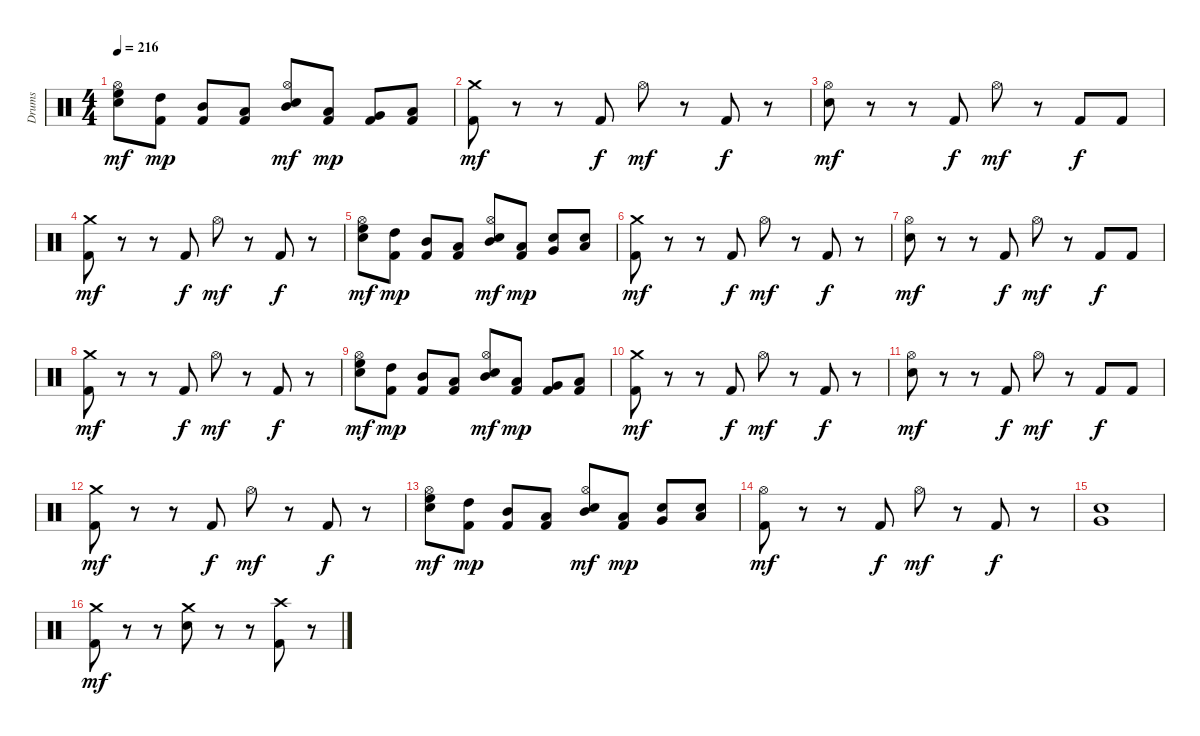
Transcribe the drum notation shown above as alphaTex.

\track ("Drums" "Drums") {instrument percussion}
\staff {score}
\articulation defaults
\ts (4 4)
\tempo 216
\clef neutral
\ks c
("Snare (hit) 2" "High Floor Tom (hit)" "Hi-Hat (open)").8{dy mf} ("Kick (hit) 2" "High Tom (hit)").8{dy mp} ("Kick (hit) 2" "Mid Tom (hit)").8 ("Kick (hit) 2" "Low Tom (hit)").8 ("Snare (hit) 2" "Mid Tom (hit)" "Hi-Hat (open)").8{dy mf} ("Kick (hit) 2" "Low Tom (hit)").8{dy mp} ("Kick (hit) 2" "Very Low Tom (hit)").8 ("Kick (hit) 2" "Low Floor Tom (hit)").8 |
("Kick (hit) 2" "Crash medium (hit)").8{dy mf} r.8 r.8 "Kick (hit) 2".8{dy f} "Hi-Hat (open)".8{dy mf} r.8 "Kick (hit) 2".8{dy f} r.8 |
("Snare (hit) 2" "Hi-Hat (open)").8{dy mf} r.8 r.8 "Kick (hit) 2".8{dy f} "Hi-Hat (open)".8{dy mf} r.8 "Kick (hit) 2".8{dy f} "Kick (hit) 2".8 |
("Kick (hit) 2" "Crash medium (hit)").8{dy mf} r.8 r.8 "Kick (hit) 2".8{dy f} "Hi-Hat (open)".8{dy mf} r.8 "Kick (hit) 2".8{dy f} r.8 |
("Snare (hit) 2" "High Floor Tom (hit)" "Hi-Hat (open)").8{dy mf} ("Kick (hit) 2" "High Tom (hit)").8{dy mp} ("Kick (hit) 2" "Mid Tom (hit)").8 ("Kick (hit) 2" "Low Tom (hit)").8 ("Snare (hit) 2" "Mid Tom (hit)" "Hi-Hat (open)").8{dy mf} ("Kick (hit) 2" "Low Tom (hit)").8{dy mp} ("Snare (hit) 2" "Very Low Tom (hit)").8 ("Snare (hit) 2" "Low Floor Tom (hit)").8 |
("Kick (hit) 2" "Crash medium (hit)").8{dy mf} r.8 r.8 "Kick (hit) 2".8{dy f} "Hi-Hat (open)".8{dy mf} r.8 "Kick (hit) 2".8{dy f} r.8 |
("Snare (hit) 2" "Hi-Hat (open)").8{dy mf} r.8 r.8 "Kick (hit) 2".8{dy f} "Hi-Hat (open)".8{dy mf} r.8 "Kick (hit) 2".8{dy f} "Kick (hit) 2".8 |
("Kick (hit) 2" "Crash medium (hit)").8{dy mf} r.8 r.8 "Kick (hit) 2".8{dy f} "Hi-Hat (open)".8{dy mf} r.8 "Kick (hit) 2".8{dy f} r.8 |
("Snare (hit) 2" "High Floor Tom (hit)" "Hi-Hat (open)").8{dy mf} ("Kick (hit) 2" "High Tom (hit)").8{dy mp} ("Kick (hit) 2" "Mid Tom (hit)").8 ("Kick (hit) 2" "Low Tom (hit)").8 ("Snare (hit) 2" "Mid Tom (hit)" "Hi-Hat (open)").8{dy mf} ("Kick (hit) 2" "Low Tom (hit)").8{dy mp} ("Kick (hit) 2" "Very Low Tom (hit)").8 ("Kick (hit) 2" "Low Floor Tom (hit)").8 |
("Kick (hit) 2" "Crash medium (hit)").8{dy mf} r.8 r.8 "Kick (hit) 2".8{dy f} "Hi-Hat (open)".8{dy mf} r.8 "Kick (hit) 2".8{dy f} r.8 |
("Snare (hit) 2" "Hi-Hat (open)").8{dy mf} r.8 r.8 "Kick (hit) 2".8{dy f} "Hi-Hat (open)".8{dy mf} r.8 "Kick (hit) 2".8{dy f} "Kick (hit) 2".8 |
("Kick (hit) 2" "Crash medium (hit)").8{dy mf} r.8 r.8 "Kick (hit) 2".8{dy f} "Hi-Hat (open)".8{dy mf} r.8 "Kick (hit) 2".8{dy f} r.8 |
("Snare (hit) 2" "High Floor Tom (hit)" "Hi-Hat (open)").8{dy mf} ("Kick (hit) 2" "High Tom (hit)").8{dy mp} ("Kick (hit) 2" "Mid Tom (hit)").8 ("Kick (hit) 2" "Low Tom (hit)").8 ("Snare (hit) 2" "Mid Tom (hit)" "Hi-Hat (open)").8{dy mf} ("Kick (hit) 2" "Low Tom (hit)").8{dy mp} ("Snare (hit) 2" "Very Low Tom (hit)").8 ("Snare (hit) 2" "Low Floor Tom (hit)").8 |
("Kick (hit) 2" "Hi-Hat (open)").8{dy mf} r.8 r.8 "Kick (hit) 2".8{dy f} "Hi-Hat (open)".8{dy mf} r.8 "Kick (hit) 2".8{dy f} r.8 |
("Snare (hit) 2" "Very Low Tom (hit)").1 |
("Kick (hit) 2" "Crash medium (hit)").8{dy mf} r.8 r.8 ("Snare (hit) 2" "Crash medium (hit)").8 r.8 r.8 ("Kick (hit) 2" "Crash high (hit)").8 r.8
